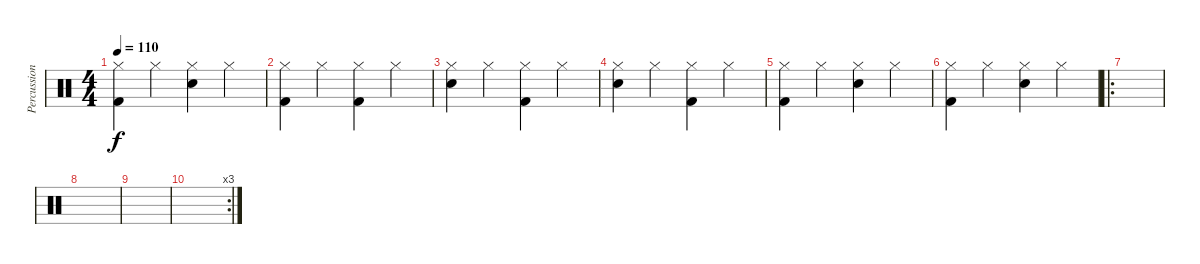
\track ("Percussion" "Percussion") {instrument percussion}
\staff {score}
\articulation defaults
\ts (4 4)
\tempo 110
\clef neutral
\ks c
("Hi-Hat (closed)" "Kick (hit) 2").4{dy f} "Hi-Hat (closed)".4 ("Hi-Hat (closed)" "Snare (hit) 2").4 "Hi-Hat (closed)".4 |
("Hi-Hat (closed)" "Kick (hit) 2").4 "Hi-Hat (closed)".4 ("Hi-Hat (closed)" "Kick (hit) 2").4 "Hi-Hat (closed)".4 |
("Hi-Hat (closed)" "Snare (hit) 2").4 "Hi-Hat (closed)".4 ("Hi-Hat (closed)" "Kick (hit) 2").4 "Hi-Hat (closed)".4 |
("Hi-Hat (closed)" "Snare (hit) 2").4 "Hi-Hat (closed)".4 ("Hi-Hat (closed)" "Kick (hit) 2").4 "Hi-Hat (closed)".4 |
("Hi-Hat (closed)" "Kick (hit) 2").4 "Hi-Hat (closed)".4 ("Hi-Hat (closed)" "Snare (hit) 2").4 "Hi-Hat (closed)".4 |
("Hi-Hat (closed)" "Kick (hit) 2").4 "Hi-Hat (closed)".4 ("Hi-Hat (closed)" "Snare (hit) 2").4 "Hi-Hat (closed)".4 |
\ro
|
|
|
\rc 3
